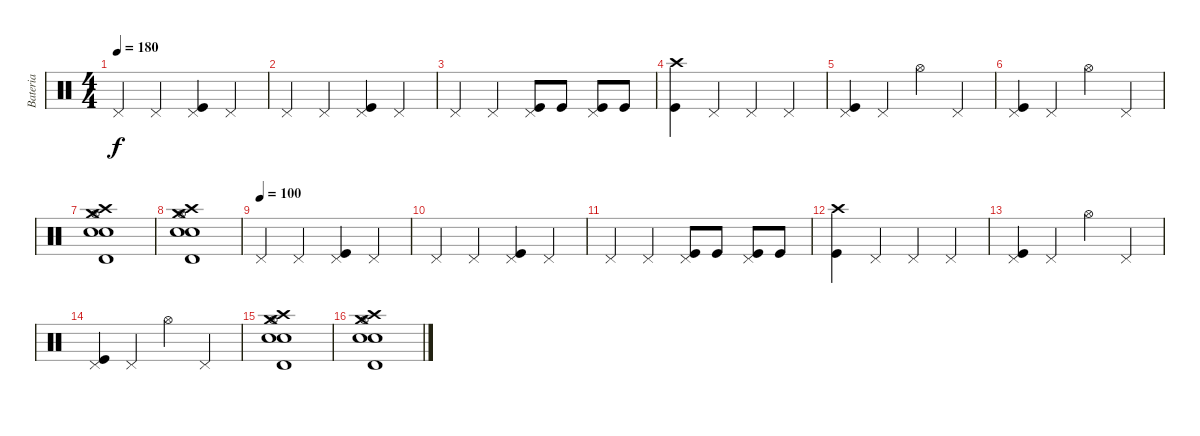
\track ("Bateria" "Bateria") {instrument percussion}
\staff {score}
\articulation defaults
\ts (4 4)
\tempo 180
\tempo 100
\tempo 180
\clef neutral
\ks c "Pedal Hi-Hat (hit)".4{dy f} "Pedal Hi-Hat (hit)".4
("Pedal Hi-Hat (hit)" "Kick (hit)").4 "Pedal Hi-Hat (hit)".4 |
"Pedal Hi-Hat (hit)".4 "Pedal Hi-Hat (hit)".4 ("Pedal Hi-Hat (hit)" "Kick (hit)").4 "Pedal Hi-Hat (hit)".4 |
"Pedal Hi-Hat (hit)".4 "Pedal Hi-Hat (hit)".4 ("Pedal Hi-Hat (hit)" "Kick (hit)").8 "Kick (hit)".8 ("Pedal Hi-Hat (hit)" "Kick (hit)").8 "Kick (hit)".8 |
("Crash high (hit)" "Kick (hit)").4 "Pedal Hi-Hat (hit)".4 "Pedal Hi-Hat (hit)".4 "Pedal Hi-Hat (hit)".4 |
("Pedal Hi-Hat (hit)" "Kick (hit)").4 "Pedal Hi-Hat (hit)".4 "Hi-Hat (open)".4 "Pedal Hi-Hat (hit)".4 |
("Pedal Hi-Hat (hit)" "Kick (hit)").4 "Pedal Hi-Hat (hit)".4 "Hi-Hat (open)".4 "Pedal Hi-Hat (hit)".4 |
("Crash high (hit)" "Crash medium (hit)" "Hi-Hat (open)" "Snare (hit) 2" "Electric Snare (hit)" "Timbale high (hit)").1 |
("Crash high (hit)" "Crash medium (hit)" "Hi-Hat (open)" "Snare (hit) 2" "Electric Snare (hit)" "Timbale high (hit)").1 |
\tempo (100)
"Pedal Hi-Hat (hit)".4 "Pedal Hi-Hat (hit)".4 ("Pedal Hi-Hat (hit)" "Kick (hit)").4 "Pedal Hi-Hat (hit)".4 |
"Pedal Hi-Hat (hit)".4 "Pedal Hi-Hat (hit)".4 ("Pedal Hi-Hat (hit)" "Kick (hit)").4 "Pedal Hi-Hat (hit)".4 |
"Pedal Hi-Hat (hit)".4 "Pedal Hi-Hat (hit)".4 ("Pedal Hi-Hat (hit)" "Kick (hit)").8 "Kick (hit)".8 ("Pedal Hi-Hat (hit)" "Kick (hit)").8 "Kick (hit)".8 |
("Crash high (hit)" "Kick (hit)").4 "Pedal Hi-Hat (hit)".4 "Pedal Hi-Hat (hit)".4 "Pedal Hi-Hat (hit)".4 |
("Pedal Hi-Hat (hit)" "Kick (hit)").4 "Pedal Hi-Hat (hit)".4 "Hi-Hat (open)".4 "Pedal Hi-Hat (hit)".4 |
("Pedal Hi-Hat (hit)" "Kick (hit)").4 "Pedal Hi-Hat (hit)".4 "Hi-Hat (open)".4 "Pedal Hi-Hat (hit)".4 |
("Crash high (hit)" "Crash medium (hit)" "Hi-Hat (open)" "Snare (hit) 2" "Electric Snare (hit)" "Timbale high (hit)").1 |
("Crash high (hit)" "Crash medium (hit)" "Hi-Hat (open)" "Snare (hit) 2" "Electric Snare (hit)" "Timbale high (hit)").1
